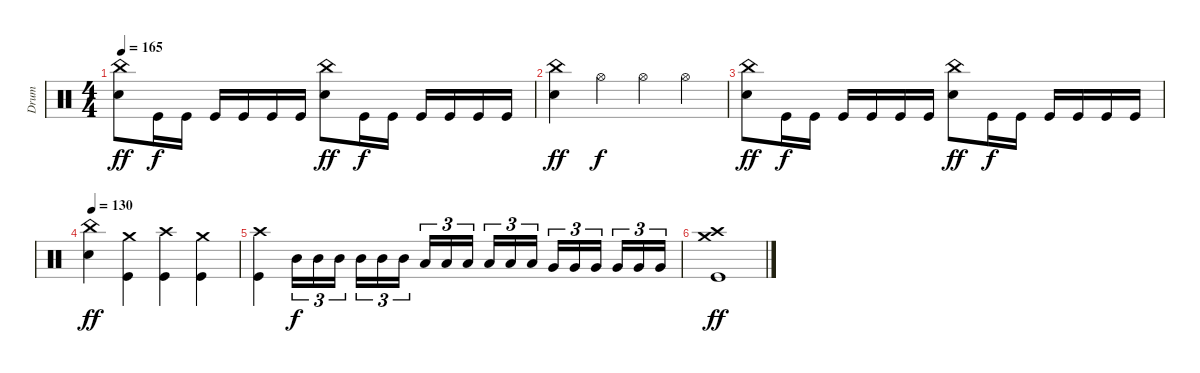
\track ("Drum" "Drum") {instrument percussion}
\staff {score}
\articulation defaults
\ts (4 4)
\tempo 165
\clef neutral
\ks c
("Electric Snare (hit)" "China (hit)").8{dy ff} "Kick (hit)".16{dy f} "Kick (hit)".16 "Kick (hit)".16 "Kick (hit)".16 "Kick (hit)".16 "Kick (hit)".16 ("Electric Snare (hit)" "China (hit)").8{dy ff} "Kick (hit)".16{dy f} "Kick (hit)".16 "Kick (hit)".16 "Kick (hit)".16 "Kick (hit)".16 "Kick (hit)".16 |
("Electric Snare (hit)" "China (hit)").4{dy ff} "Hi-Hat (open)".4{dy f} "Hi-Hat (open)".4 "Hi-Hat (open)".4 |
("Electric Snare (hit)" "China (hit)").8{dy ff} "Kick (hit)".16{dy f} "Kick (hit)".16 "Kick (hit)".16 "Kick (hit)".16 "Kick (hit)".16 "Kick (hit)".16 ("Electric Snare (hit)" "China (hit)").8{dy ff} "Kick (hit)".16{dy f} "Kick (hit)".16 "Kick (hit)".16 "Kick (hit)".16 "Kick (hit)".16 "Kick (hit)".16 |
\tempo 130
("Electric Snare (hit)" "China (hit)").4{dy ff} ("Kick (hit)" "Crash medium (hit)").4 ("Kick (hit)" "Crash high (hit)").4 ("Kick (hit)" "Crash medium (hit)").4 |
("Kick (hit)" "Crash high (hit)").4 "Mid Tom (hit)".16{tu (3 2) dy f} "Mid Tom (hit)".16{tu (3 2)} "Mid Tom (hit)".16{tu (3 2)} "Mid Tom (hit)".16{tu (3 2)} "Mid Tom (hit)".16{tu (3 2)} "Mid Tom (hit)".16{tu (3 2)} "Low Tom (hit)".16{tu (3 2)} "Low Tom (hit)".16{tu (3 2)} "Low Tom (hit)".16{tu (3 2)} "Low Tom (hit)".16{tu (3 2)} "Low Tom (hit)".16{tu (3 2)} "Low Tom (hit)".16{tu (3 2)} "Very Low Tom (hit)".16{tu (3 2)} "Very Low Tom (hit)".16{tu (3 2)} "Very Low Tom (hit)".16{tu (3 2)} "Very Low Tom (hit)".16{tu (3 2)} "Very Low Tom (hit)".16{tu (3 2)} "Very Low Tom (hit)".16{tu (3 2)} |
("Kick (hit)" "Crash high (hit)" "Crash medium (hit)").1{dy ff}
